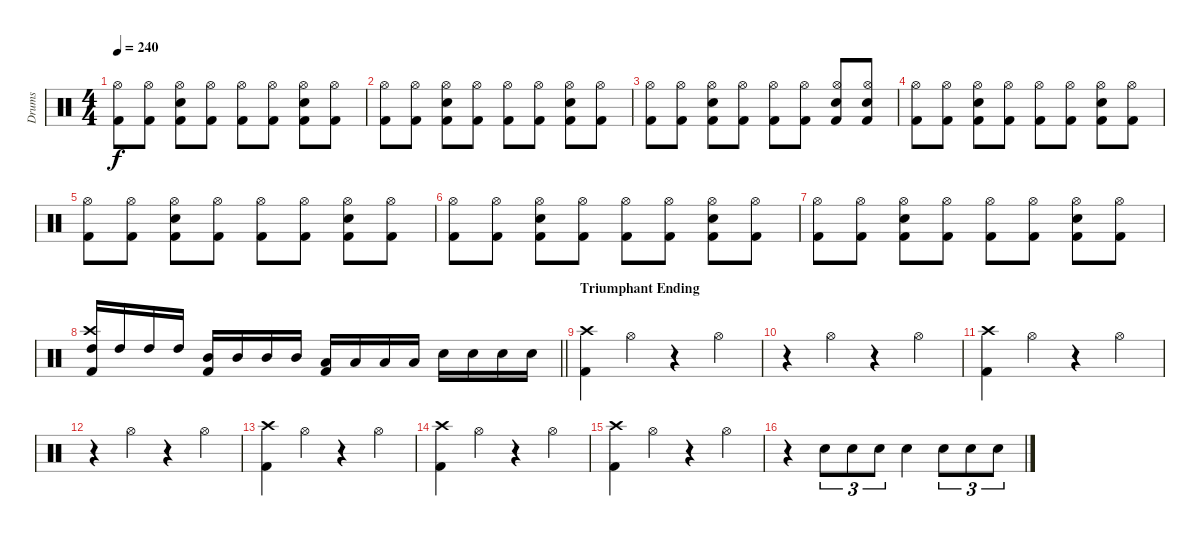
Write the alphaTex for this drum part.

\track ("Drums" "Drums") {instrument percussion}
\staff {score}
\articulation defaults
\ts (4 4)
\tempo 240
\clef neutral
\ks c
("Kick (hit) 2" "Hi-Hat (open)").8{dy f} ("Kick (hit) 2" "Hi-Hat (open)").8 ("Kick (hit) 2" "Snare (hit) 2" "Hi-Hat (open)").8 ("Kick (hit) 2" "Hi-Hat (open)").8 ("Kick (hit) 2" "Hi-Hat (open)").8 ("Kick (hit) 2" "Hi-Hat (open)").8 ("Kick (hit) 2" "Snare (hit) 2" "Hi-Hat (open)").8 ("Kick (hit) 2" "Hi-Hat (open)").8 |
("Kick (hit) 2" "Hi-Hat (open)").8 ("Kick (hit) 2" "Hi-Hat (open)").8 ("Kick (hit) 2" "Snare (hit) 2" "Hi-Hat (open)").8 ("Kick (hit) 2" "Hi-Hat (open)").8 ("Kick (hit) 2" "Hi-Hat (open)").8 ("Kick (hit) 2" "Hi-Hat (open)").8 ("Kick (hit) 2" "Snare (hit) 2" "Hi-Hat (open)").8 ("Kick (hit) 2" "Hi-Hat (open)").8 |
("Kick (hit) 2" "Hi-Hat (open)").8 ("Kick (hit) 2" "Hi-Hat (open)").8 ("Kick (hit) 2" "Snare (hit) 2" "Hi-Hat (open)").8 ("Kick (hit) 2" "Hi-Hat (open)").8 ("Kick (hit) 2" "Hi-Hat (open)").8 ("Kick (hit) 2" "Hi-Hat (open)").8 ("Kick (hit) 2" "Snare (hit) 2" "Hi-Hat (open)").8 ("Kick (hit) 2" "Snare (hit) 2" "Hi-Hat (open)").8 |
("Kick (hit) 2" "Hi-Hat (open)").8 ("Kick (hit) 2" "Hi-Hat (open)").8 ("Kick (hit) 2" "Snare (hit) 2" "Hi-Hat (open)").8 ("Kick (hit) 2" "Hi-Hat (open)").8 ("Kick (hit) 2" "Hi-Hat (open)").8 ("Kick (hit) 2" "Hi-Hat (open)").8 ("Kick (hit) 2" "Snare (hit) 2" "Hi-Hat (open)").8 ("Kick (hit) 2" "Hi-Hat (open)").8 |
("Kick (hit) 2" "Hi-Hat (open)").8 ("Kick (hit) 2" "Hi-Hat (open)").8 ("Kick (hit) 2" "Snare (hit) 2" "Hi-Hat (open)").8 ("Kick (hit) 2" "Hi-Hat (open)").8 ("Kick (hit) 2" "Hi-Hat (open)").8 ("Kick (hit) 2" "Hi-Hat (open)").8 ("Kick (hit) 2" "Snare (hit) 2" "Hi-Hat (open)").8 ("Kick (hit) 2" "Hi-Hat (open)").8 |
("Kick (hit) 2" "Hi-Hat (open)").8 ("Kick (hit) 2" "Hi-Hat (open)").8 ("Kick (hit) 2" "Snare (hit) 2" "Hi-Hat (open)").8 ("Kick (hit) 2" "Hi-Hat (open)").8 ("Kick (hit) 2" "Hi-Hat (open)").8 ("Kick (hit) 2" "Hi-Hat (open)").8 ("Kick (hit) 2" "Snare (hit) 2" "Hi-Hat (open)").8 ("Kick (hit) 2" "Hi-Hat (open)").8 |
("Kick (hit) 2" "Hi-Hat (open)").8 ("Kick (hit) 2" "Hi-Hat (open)").8 ("Kick (hit) 2" "Snare (hit) 2" "Hi-Hat (open)").8 ("Kick (hit) 2" "Hi-Hat (open)").8 ("Kick (hit) 2" "Hi-Hat (open)").8 ("Kick (hit) 2" "Hi-Hat (open)").8 ("Kick (hit) 2" "Snare (hit) 2" "Hi-Hat (open)").8 ("Kick (hit) 2" "Hi-Hat (open)").8 |
\barLineRight lightlight
("Crash high (hit)" "High Tom (hit)" "Kick (hit) 2").16 "High Tom (hit)".16 "High Tom (hit)".16 "High Tom (hit)".16 ("Mid Tom (hit)" "Kick (hit) 2").16 "Mid Tom (hit)".16 "Mid Tom (hit)".16 "Mid Tom (hit)".16 ("Low Tom (hit)" "Kick (hit) 2").16 "Low Tom (hit)".16 "Low Tom (hit)".16 "Low Tom (hit)".16 "Snare (hit) 2".16 "Snare (hit) 2".16 "Snare (hit) 2".16 "Snare (hit) 2".16 |
\section ("" "Triumphant Ending")
("Crash high (hit)" "Kick (hit) 2").4 "Hi-Hat (open)".4 r.4 "Hi-Hat (open)".4 |
r.4 "Hi-Hat (open)".4 r.4 "Hi-Hat (open)".4 |
("Crash high (hit)" "Kick (hit) 2").4 "Hi-Hat (open)".4 r.4 "Hi-Hat (open)".4 |
r.4 "Hi-Hat (open)".4 r.4 "Hi-Hat (open)".4 |
("Crash high (hit)" "Kick (hit) 2").4 "Hi-Hat (open)".4 r.4 "Hi-Hat (open)".4 |
("Crash high (hit)" "Kick (hit) 2").4 "Hi-Hat (open)".4 r.4 "Hi-Hat (open)".4 |
("Crash high (hit)" "Kick (hit) 2").4 "Hi-Hat (open)".4 r.4 "Hi-Hat (open)".4 |
r.4 "Snare (hit) 2".8{tu (3 2)} "Snare (hit) 2".8{tu (3 2)} "Snare (hit) 2".8{tu (3 2)} "Snare (hit) 2".4 "Snare (hit) 2".8{tu (3 2)} "Snare (hit) 2".8{tu (3 2)} "Snare (hit) 2".8{tu (3 2)}
